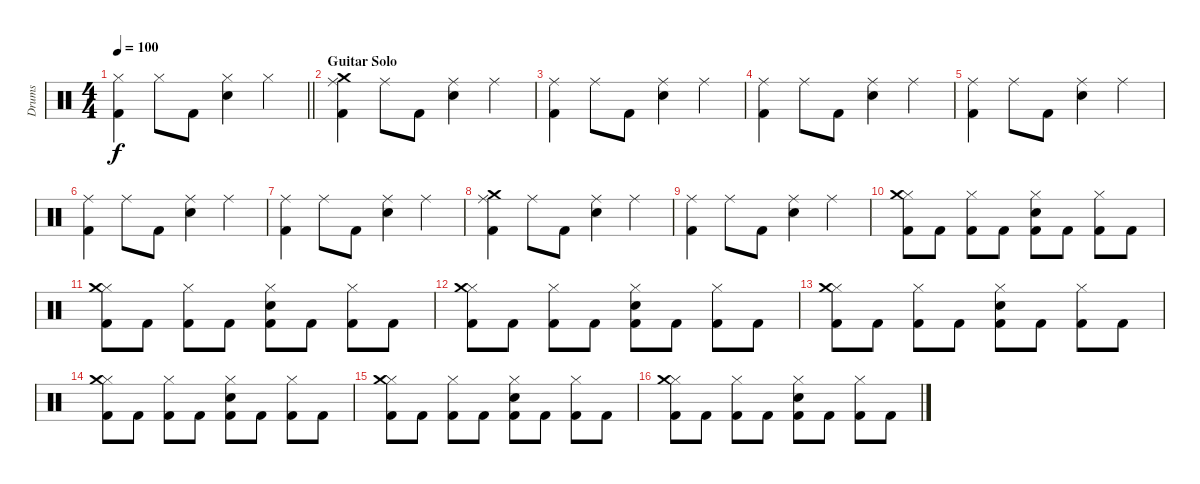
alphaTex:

\track ("Drums" "Drums") {instrument percussion}
\staff {score}
\articulation defaults
\ts (4 4)
\tempo 100
\clef neutral
\barLineRight lightlight
\ks c
("Hi-Hat (closed)" "Kick (hit) 2").4{dy f} "Hi-Hat (closed)".8 "Kick (hit) 2".8 ("Hi-Hat (closed)" "Electric Snare (hit)").4 "Hi-Hat (closed)".4 |
\section ("" "Guitar Solo")
("Ride (middle)" "Crash medium (hit)" "Kick (hit) 2").4 "Ride (middle)".8 "Kick (hit) 2".8 ("Ride (middle)" "Electric Snare (hit)").4 "Ride (middle)".4 |
("Ride (middle)" "Kick (hit) 2").4 "Ride (middle)".8 "Kick (hit) 2".8 ("Ride (middle)" "Electric Snare (hit)").4 "Ride (middle)".4 |
("Ride (middle)" "Kick (hit) 2").4 "Ride (middle)".8 "Kick (hit) 2".8 ("Ride (middle)" "Electric Snare (hit)").4 "Ride (middle)".4 |
("Ride (middle)" "Kick (hit) 2").4 "Ride (middle)".8 "Kick (hit) 2".8 ("Ride (middle)" "Electric Snare (hit)").4 "Ride (middle)".4 |
("Ride (middle)" "Kick (hit) 2").4 "Ride (middle)".8 "Kick (hit) 2".8 ("Ride (middle)" "Electric Snare (hit)").4 "Ride (middle)".4 |
("Ride (middle)" "Kick (hit) 2").4 "Ride (middle)".8 "Kick (hit) 2".8 ("Ride (middle)" "Electric Snare (hit)").4 "Ride (middle)".4 |
("Ride (middle)" "Crash medium (hit)" "Kick (hit) 2").4 "Ride (middle)".8 "Kick (hit) 2".8 ("Ride (middle)" "Electric Snare (hit)").4 "Ride (middle)".4 |
("Ride (middle)" "Kick (hit) 2").4 "Ride (middle)".8 "Kick (hit) 2".8 ("Ride (middle)" "Electric Snare (hit)").4 "Ride (middle)".4 |
("Hi-Hat (closed)" "Crash medium (hit)" "Kick (hit) 2").8 "Kick (hit) 2".8 ("Hi-Hat (closed)" "Kick (hit) 2").8 "Kick (hit) 2".8 ("Hi-Hat (closed)" "Snare (hit) 2" "Kick (hit) 2").8 "Kick (hit) 2".8 ("Hi-Hat (closed)" "Kick (hit) 2").8 "Kick (hit) 2".8 |
("Hi-Hat (closed)" "Crash medium (hit)" "Kick (hit) 2").8 "Kick (hit) 2".8 ("Hi-Hat (closed)" "Kick (hit) 2").8 "Kick (hit) 2".8 ("Hi-Hat (closed)" "Snare (hit) 2" "Kick (hit) 2").8 "Kick (hit) 2".8 ("Hi-Hat (closed)" "Kick (hit) 2").8 "Kick (hit) 2".8 |
("Hi-Hat (closed)" "Crash medium (hit)" "Kick (hit) 2").8 "Kick (hit) 2".8 ("Hi-Hat (closed)" "Kick (hit) 2").8 "Kick (hit) 2".8 ("Hi-Hat (closed)" "Snare (hit) 2" "Kick (hit) 2").8 "Kick (hit) 2".8 ("Hi-Hat (closed)" "Kick (hit) 2").8 "Kick (hit) 2".8 |
("Hi-Hat (closed)" "Crash medium (hit)" "Kick (hit) 2").8 "Kick (hit) 2".8 ("Hi-Hat (closed)" "Kick (hit) 2").8 "Kick (hit) 2".8 ("Hi-Hat (closed)" "Snare (hit) 2" "Kick (hit) 2").8 "Kick (hit) 2".8 ("Hi-Hat (closed)" "Kick (hit) 2").8 "Kick (hit) 2".8 |
("Hi-Hat (closed)" "Crash medium (hit)" "Kick (hit) 2").8 "Kick (hit) 2".8 ("Hi-Hat (closed)" "Kick (hit) 2").8 "Kick (hit) 2".8 ("Hi-Hat (closed)" "Snare (hit) 2" "Kick (hit) 2").8 "Kick (hit) 2".8 ("Hi-Hat (closed)" "Kick (hit) 2").8 "Kick (hit) 2".8 |
("Hi-Hat (closed)" "Crash medium (hit)" "Kick (hit) 2").8 "Kick (hit) 2".8 ("Hi-Hat (closed)" "Kick (hit) 2").8 "Kick (hit) 2".8 ("Hi-Hat (closed)" "Snare (hit) 2" "Kick (hit) 2").8 "Kick (hit) 2".8 ("Hi-Hat (closed)" "Kick (hit) 2").8 "Kick (hit) 2".8 |
("Hi-Hat (closed)" "Crash medium (hit)" "Kick (hit) 2").8 "Kick (hit) 2".8 ("Hi-Hat (closed)" "Kick (hit) 2").8 "Kick (hit) 2".8 ("Hi-Hat (closed)" "Snare (hit) 2" "Kick (hit) 2").8 "Kick (hit) 2".8 ("Hi-Hat (closed)" "Kick (hit) 2").8 "Kick (hit) 2".8
